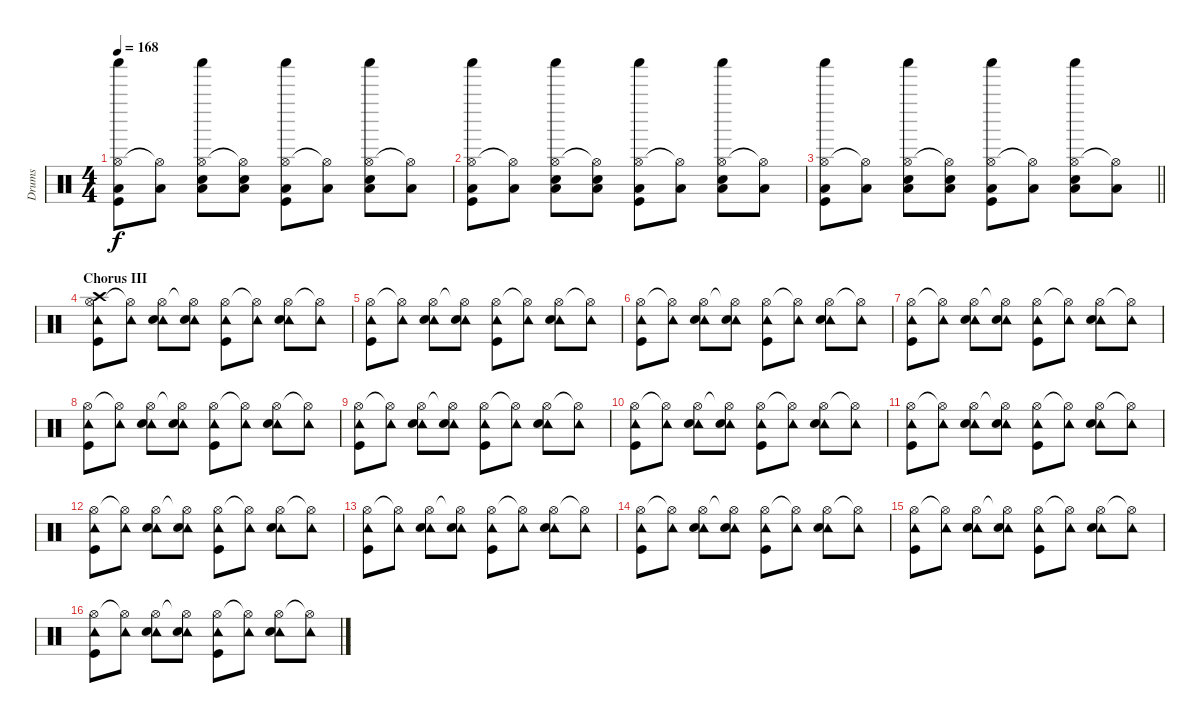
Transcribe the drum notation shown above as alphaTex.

\track ("Drums" "Drums") {instrument percussion}
\staff {score}
\articulation defaults
\ts (4 4)
\tempo 168
\clef neutral
\ks c
("Hi-Hat (open)" "Shaker (hit)" "Low Floor Tom (hit)" "Kick (hit)").8{dy f} ("Hi-Hat (open)"{t} "Low Floor Tom (hit)").8 ("Hi-Hat (open)" "Shaker (hit)" "Snare (hit) 2" "Low Floor Tom (hit)").8 ("Hi-Hat (open)"{t} "Snare (hit) 2" "Low Floor Tom (hit)").8 ("Hi-Hat (open)" "Shaker (hit)" "Low Floor Tom (hit)" "Kick (hit)").8 ("Hi-Hat (open)"{t} "Low Floor Tom (hit)").8 ("Hi-Hat (open)" "Shaker (hit)" "Snare (hit) 2" "Low Floor Tom (hit)").8 ("Hi-Hat (open)"{t} "Low Floor Tom (hit)").8 |
("Hi-Hat (open)" "Shaker (hit)" "Low Floor Tom (hit)" "Kick (hit)").8 ("Hi-Hat (open)"{t} "Low Floor Tom (hit)").8 ("Hi-Hat (open)" "Shaker (hit)" "Snare (hit) 2" "Low Floor Tom (hit)").8 ("Hi-Hat (open)"{t} "Snare (hit) 2" "Low Floor Tom (hit)").8 ("Hi-Hat (open)" "Shaker (hit)" "Low Floor Tom (hit)" "Kick (hit)").8 ("Hi-Hat (open)"{t} "Low Floor Tom (hit)").8 ("Hi-Hat (open)" "Shaker (hit)" "Snare (hit) 2" "Low Floor Tom (hit)").8 ("Hi-Hat (open)"{t} "Low Floor Tom (hit)").8 |
\barLineRight lightlight
("Hi-Hat (open)" "Shaker (hit)" "Low Floor Tom (hit)" "Kick (hit)").8 ("Hi-Hat (open)"{t} "Low Floor Tom (hit)").8 ("Hi-Hat (open)" "Shaker (hit)" "Snare (hit) 2" "Low Floor Tom (hit)").8 ("Hi-Hat (open)"{t} "Snare (hit) 2" "Low Floor Tom (hit)").8 ("Hi-Hat (open)" "Shaker (hit)" "Low Floor Tom (hit)" "Kick (hit)").8 ("Hi-Hat (open)"{t} "Low Floor Tom (hit)").8 ("Hi-Hat (open)" "Shaker (hit)" "Snare (hit) 2" "Low Floor Tom (hit)").8 ("Hi-Hat (open)"{t} "Low Floor Tom (hit)").8 |
\section ("" "Chorus III")
("Hi-Hat (open)" "Tambourine (hit)" "Crash high (hit)" "Kick (hit)").8 ("Hi-Hat (open)"{t} "Tambourine (hit)").8 ("Hi-Hat (open)" "Tambourine (hit)" "Snare (hit) 2").8 ("Hi-Hat (open)"{t} "Tambourine (hit)" "Snare (hit) 2").8 ("Hi-Hat (open)" "Tambourine (hit)" "Kick (hit)").8 ("Hi-Hat (open)"{t} "Tambourine (hit)").8 ("Hi-Hat (open)" "Tambourine (hit)" "Snare (hit) 2").8 ("Hi-Hat (open)"{t} "Tambourine (hit)").8 |
("Hi-Hat (open)" "Tambourine (hit)" "Kick (hit)").8 ("Hi-Hat (open)"{t} "Tambourine (hit)").8 ("Hi-Hat (open)" "Tambourine (hit)" "Snare (hit) 2").8 ("Hi-Hat (open)"{t} "Tambourine (hit)" "Snare (hit) 2").8 ("Hi-Hat (open)" "Tambourine (hit)" "Kick (hit)").8 ("Hi-Hat (open)"{t} "Tambourine (hit)").8 ("Hi-Hat (open)" "Tambourine (hit)" "Snare (hit) 2").8 ("Hi-Hat (open)"{t} "Tambourine (hit)").8 |
("Hi-Hat (open)" "Tambourine (hit)" "Kick (hit)").8 ("Hi-Hat (open)"{t} "Tambourine (hit)").8 ("Hi-Hat (open)" "Tambourine (hit)" "Snare (hit) 2").8 ("Hi-Hat (open)"{t} "Tambourine (hit)" "Snare (hit) 2").8 ("Hi-Hat (open)" "Tambourine (hit)" "Kick (hit)").8 ("Hi-Hat (open)"{t} "Tambourine (hit)").8 ("Hi-Hat (open)" "Tambourine (hit)" "Snare (hit) 2").8 ("Hi-Hat (open)"{t} "Tambourine (hit)").8 |
("Hi-Hat (open)" "Tambourine (hit)" "Kick (hit)").8 ("Hi-Hat (open)"{t} "Tambourine (hit)").8 ("Hi-Hat (open)" "Tambourine (hit)" "Snare (hit) 2").8 ("Hi-Hat (open)"{t} "Tambourine (hit)" "Snare (hit) 2").8 ("Hi-Hat (open)" "Tambourine (hit)" "Kick (hit)").8 ("Hi-Hat (open)"{t} "Tambourine (hit)").8 ("Hi-Hat (open)" "Tambourine (hit)" "Snare (hit) 2").8 ("Hi-Hat (open)"{t} "Tambourine (hit)").8 |
("Hi-Hat (open)" "Tambourine (hit)" "Kick (hit)").8 ("Hi-Hat (open)"{t} "Tambourine (hit)").8 ("Hi-Hat (open)" "Tambourine (hit)" "Snare (hit) 2").8 ("Hi-Hat (open)"{t} "Tambourine (hit)" "Snare (hit) 2").8 ("Hi-Hat (open)" "Tambourine (hit)" "Kick (hit)").8 ("Hi-Hat (open)"{t} "Tambourine (hit)").8 ("Hi-Hat (open)" "Tambourine (hit)" "Snare (hit) 2").8 ("Hi-Hat (open)"{t} "Tambourine (hit)").8 |
("Hi-Hat (open)" "Tambourine (hit)" "Kick (hit)").8 ("Hi-Hat (open)"{t} "Tambourine (hit)").8 ("Hi-Hat (open)" "Tambourine (hit)" "Snare (hit) 2").8 ("Hi-Hat (open)"{t} "Tambourine (hit)" "Snare (hit) 2").8 ("Hi-Hat (open)" "Tambourine (hit)" "Kick (hit)").8 ("Hi-Hat (open)"{t} "Tambourine (hit)").8 ("Hi-Hat (open)" "Tambourine (hit)" "Snare (hit) 2").8 ("Hi-Hat (open)"{t} "Tambourine (hit)").8 |
("Hi-Hat (open)" "Tambourine (hit)" "Kick (hit)").8 ("Hi-Hat (open)"{t} "Tambourine (hit)").8 ("Hi-Hat (open)" "Tambourine (hit)" "Snare (hit) 2").8 ("Hi-Hat (open)"{t} "Tambourine (hit)" "Snare (hit) 2").8 ("Hi-Hat (open)" "Tambourine (hit)" "Kick (hit)").8 ("Hi-Hat (open)"{t} "Tambourine (hit)").8 ("Hi-Hat (open)" "Tambourine (hit)" "Snare (hit) 2").8 ("Hi-Hat (open)"{t} "Tambourine (hit)").8 |
("Hi-Hat (open)" "Tambourine (hit)" "Kick (hit)").8 ("Hi-Hat (open)"{t} "Tambourine (hit)").8 ("Hi-Hat (open)" "Tambourine (hit)" "Snare (hit) 2").8 ("Hi-Hat (open)"{t} "Tambourine (hit)" "Snare (hit) 2").8 ("Hi-Hat (open)" "Tambourine (hit)" "Kick (hit)").8 ("Hi-Hat (open)"{t} "Tambourine (hit)").8 ("Hi-Hat (open)" "Tambourine (hit)" "Snare (hit) 2").8 ("Hi-Hat (open)"{t} "Tambourine (hit)").8 |
("Hi-Hat (open)" "Tambourine (hit)" "Kick (hit)").8 ("Hi-Hat (open)"{t} "Tambourine (hit)").8 ("Hi-Hat (open)" "Tambourine (hit)" "Snare (hit) 2").8 ("Hi-Hat (open)"{t} "Tambourine (hit)" "Snare (hit) 2").8 ("Hi-Hat (open)" "Tambourine (hit)" "Kick (hit)").8 ("Hi-Hat (open)"{t} "Tambourine (hit)").8 ("Hi-Hat (open)" "Tambourine (hit)" "Snare (hit) 2").8 ("Hi-Hat (open)"{t} "Tambourine (hit)").8 |
("Hi-Hat (open)" "Tambourine (hit)" "Kick (hit)").8 ("Hi-Hat (open)"{t} "Tambourine (hit)").8 ("Hi-Hat (open)" "Tambourine (hit)" "Snare (hit) 2").8 ("Hi-Hat (open)"{t} "Tambourine (hit)" "Snare (hit) 2").8 ("Hi-Hat (open)" "Tambourine (hit)" "Kick (hit)").8 ("Hi-Hat (open)"{t} "Tambourine (hit)").8 ("Hi-Hat (open)" "Tambourine (hit)" "Snare (hit) 2").8 ("Hi-Hat (open)"{t} "Tambourine (hit)").8 |
("Hi-Hat (open)" "Tambourine (hit)" "Kick (hit)").8 ("Hi-Hat (open)"{t} "Tambourine (hit)").8 ("Hi-Hat (open)" "Tambourine (hit)" "Snare (hit) 2").8 ("Hi-Hat (open)"{t} "Tambourine (hit)" "Snare (hit) 2").8 ("Hi-Hat (open)" "Tambourine (hit)" "Kick (hit)").8 ("Hi-Hat (open)"{t} "Tambourine (hit)").8 ("Hi-Hat (open)" "Tambourine (hit)" "Snare (hit) 2").8 ("Hi-Hat (open)"{t} "Tambourine (hit)").8 |
("Hi-Hat (open)" "Tambourine (hit)" "Kick (hit)").8 ("Hi-Hat (open)"{t} "Tambourine (hit)").8 ("Hi-Hat (open)" "Tambourine (hit)" "Snare (hit) 2").8 ("Hi-Hat (open)"{t} "Tambourine (hit)" "Snare (hit) 2").8 ("Hi-Hat (open)" "Tambourine (hit)" "Kick (hit)").8 ("Hi-Hat (open)"{t} "Tambourine (hit)").8 ("Hi-Hat (open)" "Tambourine (hit)" "Snare (hit) 2").8 ("Hi-Hat (open)"{t} "Tambourine (hit)").8 |
("Hi-Hat (open)" "Tambourine (hit)" "Kick (hit)").8 ("Hi-Hat (open)"{t} "Tambourine (hit)").8 ("Hi-Hat (open)" "Tambourine (hit)" "Snare (hit) 2").8 ("Hi-Hat (open)"{t} "Tambourine (hit)" "Snare (hit) 2").8 ("Hi-Hat (open)" "Tambourine (hit)" "Kick (hit)").8 ("Hi-Hat (open)"{t} "Tambourine (hit)").8 ("Hi-Hat (open)" "Tambourine (hit)" "Snare (hit) 2").8 ("Hi-Hat (open)"{t} "Tambourine (hit)").8
